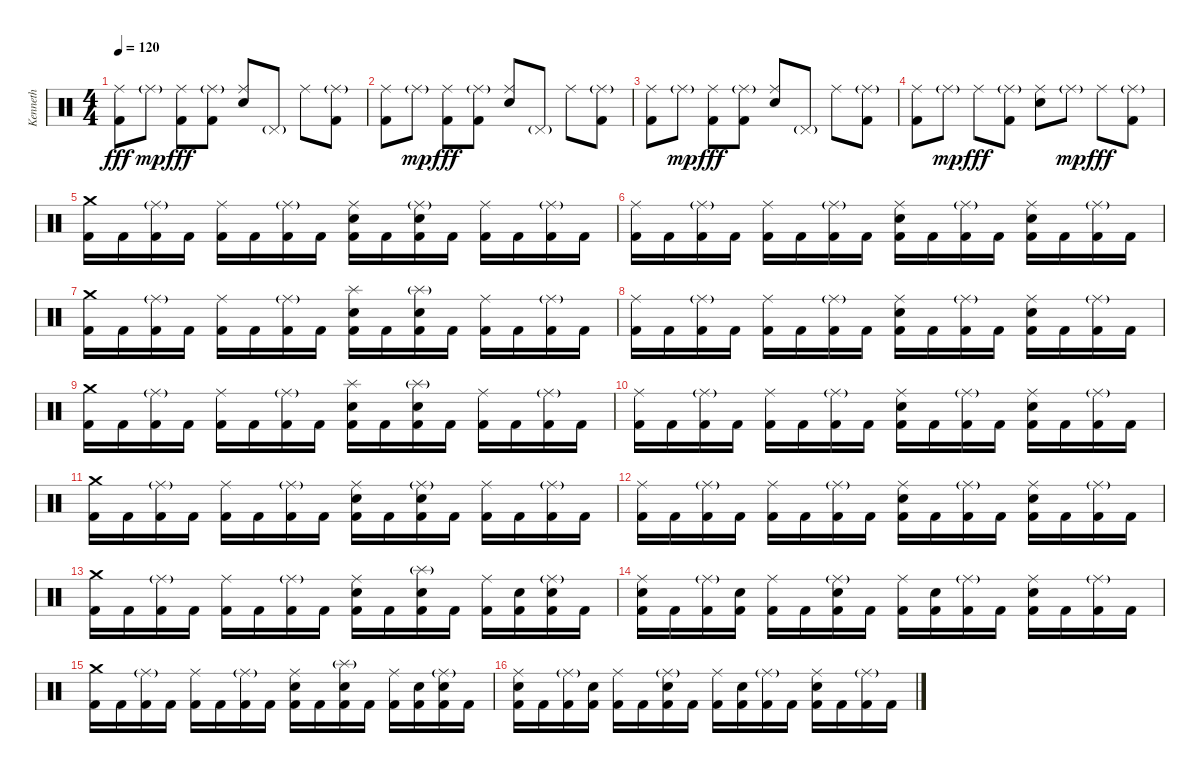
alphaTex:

\track ("Kenneth" "Kenneth") {instrument percussion}
\staff {score}
\articulation defaults
\ts (4 4)
\tempo 120
\clef neutral
\ks c
("Ride (middle)" "Kick (hit) 2").8{dy fff} "Ride (middle)"{g}.8{dy mp} ("Ride (middle)" "Kick (hit) 2").8{dy fff} ("Ride (middle)"{g} "Kick (hit) 2").8 ("Ride (middle)" "Electric Snare (hit)").8 "Pedal Hi-Hat (hit)"{g}.8 "Ride (middle)".8 ("Ride (middle)"{g} "Kick (hit) 2").8 |
("Ride (middle)" "Kick (hit) 2").8 "Ride (middle)"{g}.8{dy mp} ("Ride (middle)" "Kick (hit) 2").8{dy fff} ("Ride (middle)"{g} "Kick (hit) 2").8 ("Ride (middle)" "Electric Snare (hit)").8 "Pedal Hi-Hat (hit)"{g}.8 "Ride (middle)".8 ("Ride (middle)"{g} "Kick (hit) 2").8 |
("Ride (middle)" "Kick (hit) 2").8 "Ride (middle)"{g}.8{dy mp} ("Ride (middle)" "Kick (hit) 2").8{dy fff} ("Ride (middle)"{g} "Kick (hit) 2").8 ("Ride (middle)" "Electric Snare (hit)").8 "Pedal Hi-Hat (hit)"{g}.8 "Ride (middle)".8 ("Ride (middle)"{g} "Kick (hit) 2").8 |
("Ride (middle)" "Kick (hit) 2").8 "Ride (middle)"{g}.8{dy mp} "Ride (middle)".8{dy fff} ("Ride (middle)"{g} "Kick (hit) 2").8 ("Ride (middle)" "Electric Snare (hit)").8 "Ride (middle)"{g}.8{dy mp} "Ride (middle)".8{dy fff} ("Ride (middle)"{g} "Kick (hit) 2").8 |
("Crash medium (hit)" "Kick (hit) 2").16 "Kick (hit) 2".16 ("Ride (middle)"{g} "Kick (hit) 2").16 "Kick (hit) 2".16 ("Ride (middle)" "Kick (hit) 2").16 "Kick (hit) 2".16 ("Ride (middle)"{g} "Kick (hit) 2").16 "Kick (hit) 2".16 ("Ride (middle)" "Electric Snare (hit)" "Kick (hit) 2").16 "Kick (hit) 2".16 ("Ride (middle)"{g} "Electric Snare (hit)" "Kick (hit) 2").16 "Kick (hit) 2".16 ("Ride (middle)" "Kick (hit) 2").16 "Kick (hit) 2".16 ("Ride (middle)"{g} "Kick (hit) 2").16 "Kick (hit) 2".16 |
("Ride (middle)" "Kick (hit) 2").16 "Kick (hit) 2".16 ("Ride (middle)"{g} "Kick (hit) 2").16 "Kick (hit) 2".16 ("Ride (middle)" "Kick (hit) 2").16 "Kick (hit) 2".16 ("Ride (middle)"{g} "Kick (hit) 2").16 "Kick (hit) 2".16 ("Ride (middle)" "Electric Snare (hit)" "Kick (hit) 2").16 "Kick (hit) 2".16 ("Ride (middle)"{g} "Kick (hit) 2").16 "Kick (hit) 2".16 ("Ride (middle)" "Electric Snare (hit)" "Kick (hit) 2").16 "Kick (hit) 2".16 ("Ride (middle)"{g} "Kick (hit) 2").16 "Kick (hit) 2".16 |
("Crash medium (hit)" "Kick (hit) 2").16 "Kick (hit) 2".16 ("Ride (middle)"{g} "Kick (hit) 2").16 "Kick (hit) 2".16 ("Ride (middle)" "Kick (hit) 2").16 "Kick (hit) 2".16 ("Ride (middle)"{g} "Kick (hit) 2").16 "Kick (hit) 2".16 ("Splash (hit)" "Electric Snare (hit)" "Kick (hit) 2").16 "Kick (hit) 2".16 ("Splash (hit)"{g} "Electric Snare (hit)" "Kick (hit) 2").16 "Kick (hit) 2".16 ("Ride (middle)" "Kick (hit) 2").16 "Kick (hit) 2".16 ("Ride (middle)"{g} "Kick (hit) 2").16 "Kick (hit) 2".16 |
("Ride (middle)" "Kick (hit) 2").16 "Kick (hit) 2".16 ("Ride (middle)"{g} "Kick (hit) 2").16 "Kick (hit) 2".16 ("Ride (middle)" "Kick (hit) 2").16 "Kick (hit) 2".16 ("Ride (middle)"{g} "Kick (hit) 2").16 "Kick (hit) 2".16 ("Ride (middle)" "Electric Snare (hit)" "Kick (hit) 2").16 "Kick (hit) 2".16 ("Ride (middle)"{g} "Kick (hit) 2").16 "Kick (hit) 2".16 ("Ride (middle)" "Electric Snare (hit)" "Kick (hit) 2").16 "Kick (hit) 2".16 ("Ride (middle)"{g} "Kick (hit) 2").16 "Kick (hit) 2".16 |
("Crash medium (hit)" "Kick (hit) 2").16 "Kick (hit) 2".16 ("Ride (middle)"{g} "Kick (hit) 2").16 "Kick (hit) 2".16 ("Ride (middle)" "Kick (hit) 2").16 "Kick (hit) 2".16 ("Ride (middle)"{g} "Kick (hit) 2").16 "Kick (hit) 2".16 ("Splash (hit)" "Electric Snare (hit)" "Kick (hit) 2").16 "Kick (hit) 2".16 ("Splash (hit)"{g} "Electric Snare (hit)" "Kick (hit) 2").16 "Kick (hit) 2".16 ("Ride (middle)" "Kick (hit) 2").16 "Kick (hit) 2".16 ("Ride (middle)"{g} "Kick (hit) 2").16 "Kick (hit) 2".16 |
("Ride (middle)" "Kick (hit) 2").16 "Kick (hit) 2".16 ("Ride (middle)"{g} "Kick (hit) 2").16 "Kick (hit) 2".16 ("Ride (middle)" "Kick (hit) 2").16 "Kick (hit) 2".16 ("Ride (middle)"{g} "Kick (hit) 2").16 "Kick (hit) 2".16 ("Ride (middle)" "Electric Snare (hit)" "Kick (hit) 2").16 "Kick (hit) 2".16 ("Ride (middle)"{g} "Kick (hit) 2").16 "Kick (hit) 2".16 ("Ride (middle)" "Electric Snare (hit)" "Kick (hit) 2").16 "Kick (hit) 2".16 ("Ride (middle)"{g} "Kick (hit) 2").16 "Kick (hit) 2".16 |
("Crash medium (hit)" "Kick (hit) 2").16 "Kick (hit) 2".16 ("Ride (middle)"{g} "Kick (hit) 2").16 "Kick (hit) 2".16 ("Ride (middle)" "Kick (hit) 2").16 "Kick (hit) 2".16 ("Ride (middle)"{g} "Kick (hit) 2").16 "Kick (hit) 2".16 ("Ride (middle)" "Electric Snare (hit)" "Kick (hit) 2").16 "Kick (hit) 2".16 ("Ride (middle)"{g} "Electric Snare (hit)" "Kick (hit) 2").16 "Kick (hit) 2".16 ("Ride (middle)" "Kick (hit) 2").16 "Kick (hit) 2".16 ("Ride (middle)"{g} "Kick (hit) 2").16 "Kick (hit) 2".16 |
("Ride (middle)" "Kick (hit) 2").16 "Kick (hit) 2".16 ("Ride (middle)"{g} "Kick (hit) 2").16 "Kick (hit) 2".16 ("Ride (middle)" "Kick (hit) 2").16 "Kick (hit) 2".16 ("Ride (middle)"{g} "Kick (hit) 2").16 "Kick (hit) 2".16 ("Ride (middle)" "Electric Snare (hit)" "Kick (hit) 2").16 "Kick (hit) 2".16 ("Ride (middle)"{g} "Kick (hit) 2").16 "Kick (hit) 2".16 ("Ride (middle)" "Electric Snare (hit)" "Kick (hit) 2").16 "Kick (hit) 2".16 ("Ride (middle)"{g} "Kick (hit) 2").16 "Kick (hit) 2".16 |
("Crash medium (hit)" "Kick (hit) 2").16 "Kick (hit) 2".16 ("Ride (middle)"{g} "Kick (hit) 2").16 "Kick (hit) 2".16 ("Ride (middle)" "Kick (hit) 2").16 "Kick (hit) 2".16 ("Ride (middle)"{g} "Kick (hit) 2").16 "Kick (hit) 2".16 ("Ride (middle)" "Electric Snare (hit)" "Kick (hit) 2").16 "Kick (hit) 2".16 ("Splash (hit)"{g} "Electric Snare (hit)" "Kick (hit) 2").16 "Kick (hit) 2".16 ("Ride (middle)" "Kick (hit) 2").16 ("Electric Snare (hit)" "Kick (hit) 2").16 ("Ride (middle)"{g} "Electric Snare (hit)" "Kick (hit) 2").16 "Kick (hit) 2".16 |
("Ride (middle)" "Electric Snare (hit)" "Kick (hit) 2").16 "Kick (hit) 2".16 ("Ride (middle)"{g} "Kick (hit) 2").16 ("Electric Snare (hit)" "Kick (hit) 2").16 ("Ride (middle)" "Kick (hit) 2").16 "Kick (hit) 2".16 ("Ride (middle)"{g} "Electric Snare (hit)" "Kick (hit) 2").16 "Kick (hit) 2".16 ("Ride (middle)" "Kick (hit) 2").16 ("Electric Snare (hit)" "Kick (hit) 2").16 ("Ride (middle)"{g} "Kick (hit) 2").16 "Kick (hit) 2".16 ("Ride (middle)" "Electric Snare (hit)" "Kick (hit) 2").16 "Kick (hit) 2".16 ("Ride (middle)"{g} "Kick (hit) 2").16 "Kick (hit) 2".16 |
("Crash medium (hit)" "Kick (hit) 2").16 "Kick (hit) 2".16 ("Ride (middle)"{g} "Kick (hit) 2").16 "Kick (hit) 2".16 ("Ride (middle)" "Kick (hit) 2").16 "Kick (hit) 2".16 ("Ride (middle)"{g} "Kick (hit) 2").16 "Kick (hit) 2".16 ("Ride (middle)" "Electric Snare (hit)" "Kick (hit) 2").16 "Kick (hit) 2".16 ("Splash (hit)"{g} "Electric Snare (hit)" "Kick (hit) 2").16 "Kick (hit) 2".16 ("Ride (middle)" "Kick (hit) 2").16 ("Electric Snare (hit)" "Kick (hit) 2").16 ("Ride (middle)"{g} "Electric Snare (hit)" "Kick (hit) 2").16 "Kick (hit) 2".16 |
("Ride (middle)" "Electric Snare (hit)" "Kick (hit) 2").16 "Kick (hit) 2".16 ("Ride (middle)"{g} "Kick (hit) 2").16 ("Electric Snare (hit)" "Kick (hit) 2").16 ("Ride (middle)" "Kick (hit) 2").16 "Kick (hit) 2".16 ("Ride (middle)"{g} "Electric Snare (hit)" "Kick (hit) 2").16 "Kick (hit) 2".16 ("Ride (middle)" "Kick (hit) 2").16 ("Electric Snare (hit)" "Kick (hit) 2").16 ("Ride (middle)"{g} "Kick (hit) 2").16 "Kick (hit) 2".16 ("Ride (middle)" "Electric Snare (hit)" "Kick (hit) 2").16 "Kick (hit) 2".16 ("Ride (middle)"{g} "Kick (hit) 2").16 "Kick (hit) 2".16
